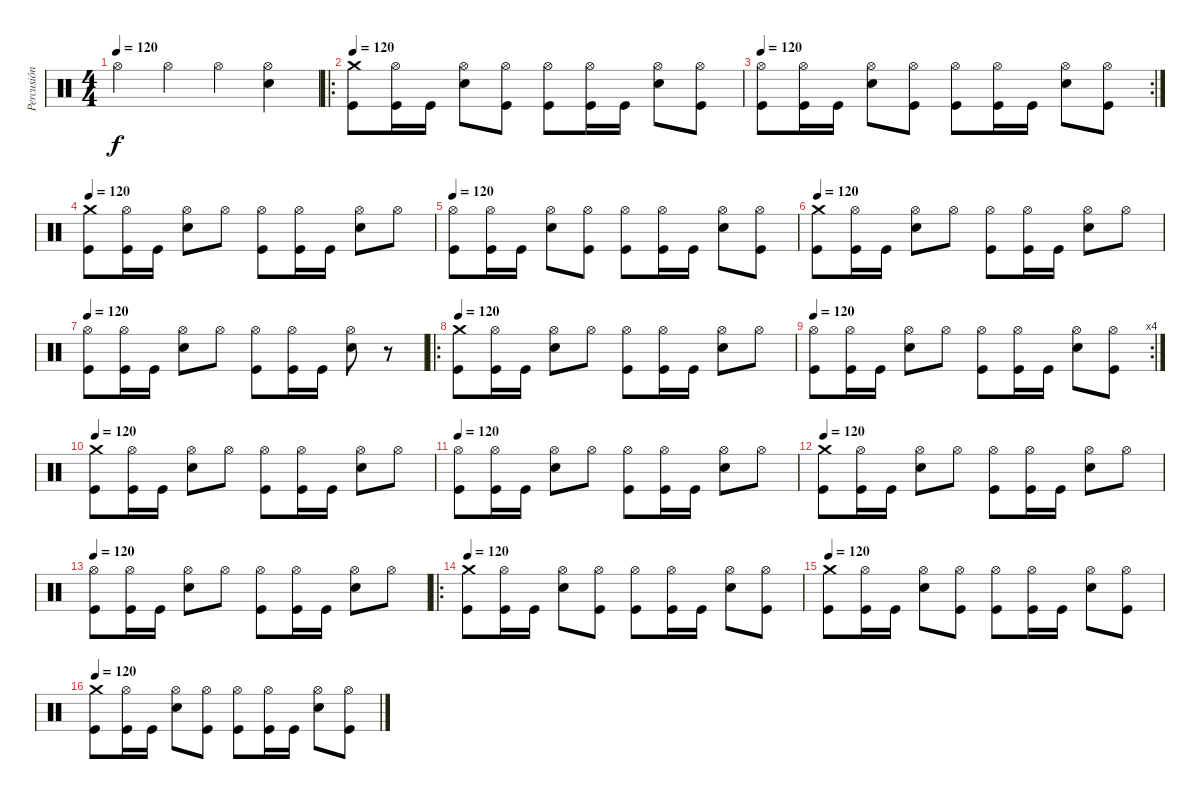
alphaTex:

\track ("Percusión" "Percusión") {instrument percussion}
\staff {score}
\articulation defaults
\ts (4 4)
\tempo 120
\tempo 90
\tempo 120
\clef neutral
\ks c "Hi-Hat (open)".4{dy f} "Hi-Hat (open)".4 "Hi-Hat (open)".4
("Hi-Hat (open)" "Electric Snare (hit)").4 |
\ro
\tempo 120
("Crash medium (hit)" "Kick (hit)").8 ("Hi-Hat (open)" "Kick (hit)").16 "Kick (hit)".16 ("Hi-Hat (open)" "Electric Snare (hit)").8 ("Hi-Hat (open)" "Kick (hit)").8 ("Hi-Hat (open)" "Kick (hit)").8 ("Hi-Hat (open)" "Kick (hit)").16 "Kick (hit)".16 ("Hi-Hat (open)" "Electric Snare (hit)").8 ("Hi-Hat (open)" "Kick (hit)").8 |
\rc 2
\tempo 120
("Hi-Hat (open)" "Kick (hit)").8 ("Hi-Hat (open)" "Kick (hit)").16 "Kick (hit)".16 ("Hi-Hat (open)" "Electric Snare (hit)").8 ("Hi-Hat (open)" "Kick (hit)").8 ("Hi-Hat (open)" "Kick (hit)").8 ("Hi-Hat (open)" "Kick (hit)").16 "Kick (hit)".16 ("Hi-Hat (open)" "Electric Snare (hit)").8 ("Hi-Hat (open)" "Kick (hit)").8 |
\tempo 120
("Crash medium (hit)" "Kick (hit)").8 ("Hi-Hat (open)" "Kick (hit)").16 "Kick (hit)".16 ("Hi-Hat (open)" "Electric Snare (hit)").8 "Hi-Hat (open)".8 ("Hi-Hat (open)" "Kick (hit)").8 ("Hi-Hat (open)" "Kick (hit)").16 "Kick (hit)".16 ("Hi-Hat (open)" "Electric Snare (hit)").8 "Hi-Hat (open)".8 |
\tempo 120
("Hi-Hat (open)" "Kick (hit)").8 ("Hi-Hat (open)" "Kick (hit)").16 "Kick (hit)".16 ("Hi-Hat (open)" "Electric Snare (hit)").8 ("Hi-Hat (open)" "Kick (hit)").8 ("Hi-Hat (open)" "Kick (hit)").8 ("Hi-Hat (open)" "Kick (hit)").16 "Kick (hit)".16 ("Hi-Hat (open)" "Electric Snare (hit)").8 ("Hi-Hat (open)" "Kick (hit)").8 |
\tempo 120
("Crash medium (hit)" "Kick (hit)").8 ("Hi-Hat (open)" "Kick (hit)").16 "Kick (hit)".16 ("Hi-Hat (open)" "Electric Snare (hit)").8 "Hi-Hat (open)".8 ("Hi-Hat (open)" "Kick (hit)").8 ("Hi-Hat (open)" "Kick (hit)").16 "Kick (hit)".16 ("Hi-Hat (open)" "Electric Snare (hit)").8 "Hi-Hat (open)".8 |
\tempo 120
("Hi-Hat (open)" "Kick (hit)").8 ("Hi-Hat (open)" "Kick (hit)").16 "Kick (hit)".16 ("Hi-Hat (open)" "Electric Snare (hit)").8 "Hi-Hat (open)".8 ("Hi-Hat (open)" "Kick (hit)").8 ("Hi-Hat (open)" "Kick (hit)").16 "Kick (hit)".16 ("Hi-Hat (open)" "Electric Snare (hit)").8 r.8 |
\ro
\tempo 120
("Crash medium (hit)" "Kick (hit)").8 ("Hi-Hat (open)" "Kick (hit)").16 "Kick (hit)".16 ("Hi-Hat (open)" "Electric Snare (hit)").8 "Hi-Hat (open)".8 ("Hi-Hat (open)" "Kick (hit)").8 ("Hi-Hat (open)" "Kick (hit)").16 "Kick (hit)".16 ("Hi-Hat (open)" "Electric Snare (hit)").8 "Hi-Hat (open)".8 |
\rc 4
\tempo 120
("Hi-Hat (open)" "Kick (hit)").8 ("Hi-Hat (open)" "Kick (hit)").16 "Kick (hit)".16 ("Hi-Hat (open)" "Electric Snare (hit)").8 "Hi-Hat (open)".8 ("Hi-Hat (open)" "Kick (hit)").8 ("Hi-Hat (open)" "Kick (hit)").16 "Kick (hit)".16 ("Hi-Hat (open)" "Electric Snare (hit)").8 ("Hi-Hat (open)" "Kick (hit)").8 |
\tempo 120
("Crash medium (hit)" "Kick (hit)").8 ("Hi-Hat (open)" "Kick (hit)").16 "Kick (hit)".16 ("Hi-Hat (open)" "Electric Snare (hit)").8 "Hi-Hat (open)".8 ("Hi-Hat (open)" "Kick (hit)").8 ("Hi-Hat (open)" "Kick (hit)").16 "Kick (hit)".16 ("Hi-Hat (open)" "Electric Snare (hit)").8 "Hi-Hat (open)".8 |
\tempo 120
("Hi-Hat (open)" "Kick (hit)").8 ("Hi-Hat (open)" "Kick (hit)").16 "Kick (hit)".16 ("Hi-Hat (open)" "Electric Snare (hit)").8 "Hi-Hat (open)".8 ("Hi-Hat (open)" "Kick (hit)").8 ("Hi-Hat (open)" "Kick (hit)").16 "Kick (hit)".16 ("Hi-Hat (open)" "Electric Snare (hit)").8 "Hi-Hat (open)".8 |
\tempo 120
("Crash medium (hit)" "Kick (hit)").8 ("Hi-Hat (open)" "Kick (hit)").16 "Kick (hit)".16 ("Hi-Hat (open)" "Electric Snare (hit)").8 "Hi-Hat (open)".8 ("Hi-Hat (open)" "Kick (hit)").8 ("Hi-Hat (open)" "Kick (hit)").16 "Kick (hit)".16 ("Hi-Hat (open)" "Electric Snare (hit)").8 "Hi-Hat (open)".8 |
\tempo 120
("Hi-Hat (open)" "Kick (hit)").8 ("Hi-Hat (open)" "Kick (hit)").16 "Kick (hit)".16 ("Hi-Hat (open)" "Electric Snare (hit)").8 "Hi-Hat (open)".8 ("Hi-Hat (open)" "Kick (hit)").8 ("Hi-Hat (open)" "Kick (hit)").16 "Kick (hit)".16 ("Hi-Hat (open)" "Electric Snare (hit)").8 "Hi-Hat (open)".8 |
\ro
\tempo 120
("Crash medium (hit)" "Kick (hit)").8 ("Hi-Hat (open)" "Kick (hit)").16 "Kick (hit)".16 ("Hi-Hat (open)" "Electric Snare (hit)").8 ("Hi-Hat (open)" "Kick (hit)").8 ("Hi-Hat (open)" "Kick (hit)").8 ("Hi-Hat (open)" "Kick (hit)").16 "Kick (hit)".16 ("Hi-Hat (open)" "Electric Snare (hit)").8 ("Hi-Hat (open)" "Kick (hit)").8 |
\tempo 120
("Crash medium (hit)" "Kick (hit)").8 ("Hi-Hat (open)" "Kick (hit)").16 "Kick (hit)".16 ("Hi-Hat (open)" "Electric Snare (hit)").8 ("Hi-Hat (open)" "Kick (hit)").8 ("Hi-Hat (open)" "Kick (hit)").8 ("Hi-Hat (open)" "Kick (hit)").16 "Kick (hit)".16 ("Hi-Hat (open)" "Electric Snare (hit)").8 ("Hi-Hat (open)" "Kick (hit)").8 |
\tempo 120
("Crash medium (hit)" "Kick (hit)").8 ("Hi-Hat (open)" "Kick (hit)").16 "Kick (hit)".16 ("Hi-Hat (open)" "Electric Snare (hit)").8 ("Hi-Hat (open)" "Kick (hit)").8 ("Hi-Hat (open)" "Kick (hit)").8 ("Hi-Hat (open)" "Kick (hit)").16 "Kick (hit)".16 ("Hi-Hat (open)" "Electric Snare (hit)").8 ("Hi-Hat (open)" "Kick (hit)").8
